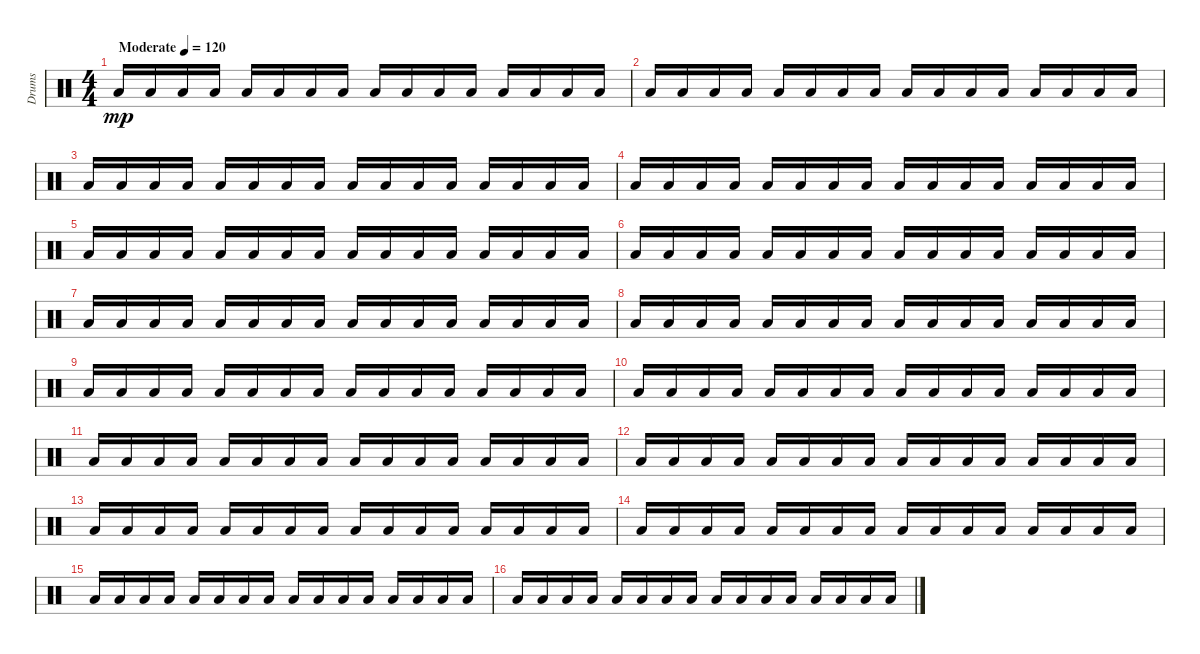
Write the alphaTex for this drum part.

\track ("Drums" "Drums") {instrument percussion}
\staff {score}
\articulation defaults
\ts (4 4)
\tempo (120 "Moderate")
\clef neutral
\ks c "Low Floor Tom (hit)".16{dy mp volume 0} "Low Floor Tom (hit)".16{volume 9} "Low Floor Tom (hit)".16 "Low Floor Tom (hit)".16 "Low Floor Tom (hit)".16 "Low Floor Tom (hit)".16 "Low Floor Tom (hit)".16 "Low Floor Tom (hit)".16 "Low Floor Tom (hit)".16 "Low Floor Tom (hit)".16 "Low Floor Tom (hit)".16 "Low Floor Tom (hit)".16 "Low Floor Tom (hit)".16 "Low Floor Tom (hit)".16 "Low Floor Tom (hit)".16 "Low Floor Tom (hit)".16
|
"Low Floor Tom (hit)".16 "Low Floor Tom (hit)".16 "Low Floor Tom (hit)".16 "Low Floor Tom (hit)".16 "Low Floor Tom (hit)".16 "Low Floor Tom (hit)".16 "Low Floor Tom (hit)".16 "Low Floor Tom (hit)".16 "Low Floor Tom (hit)".16 "Low Floor Tom (hit)".16 "Low Floor Tom (hit)".16 "Low Floor Tom (hit)".16 "Low Floor Tom (hit)".16 "Low Floor Tom (hit)".16 "Low Floor Tom (hit)".16 "Low Floor Tom (hit)".16 |
"Low Floor Tom (hit)".16 "Low Floor Tom (hit)".16 "Low Floor Tom (hit)".16 "Low Floor Tom (hit)".16 "Low Floor Tom (hit)".16 "Low Floor Tom (hit)".16 "Low Floor Tom (hit)".16 "Low Floor Tom (hit)".16 "Low Floor Tom (hit)".16 "Low Floor Tom (hit)".16 "Low Floor Tom (hit)".16 "Low Floor Tom (hit)".16 "Low Floor Tom (hit)".16 "Low Floor Tom (hit)".16 "Low Floor Tom (hit)".16 "Low Floor Tom (hit)".16 |
"Low Floor Tom (hit)".16 "Low Floor Tom (hit)".16 "Low Floor Tom (hit)".16 "Low Floor Tom (hit)".16 "Low Floor Tom (hit)".16 "Low Floor Tom (hit)".16 "Low Floor Tom (hit)".16 "Low Floor Tom (hit)".16 "Low Floor Tom (hit)".16 "Low Floor Tom (hit)".16 "Low Floor Tom (hit)".16 "Low Floor Tom (hit)".16 "Low Floor Tom (hit)".16 "Low Floor Tom (hit)".16 "Low Floor Tom (hit)".16 "Low Floor Tom (hit)".16 |
"Low Floor Tom (hit)".16 "Low Floor Tom (hit)".16 "Low Floor Tom (hit)".16 "Low Floor Tom (hit)".16 "Low Floor Tom (hit)".16 "Low Floor Tom (hit)".16 "Low Floor Tom (hit)".16 "Low Floor Tom (hit)".16 "Low Floor Tom (hit)".16 "Low Floor Tom (hit)".16 "Low Floor Tom (hit)".16 "Low Floor Tom (hit)".16 "Low Floor Tom (hit)".16 "Low Floor Tom (hit)".16 "Low Floor Tom (hit)".16 "Low Floor Tom (hit)".16 |
"Low Floor Tom (hit)".16 "Low Floor Tom (hit)".16 "Low Floor Tom (hit)".16 "Low Floor Tom (hit)".16 "Low Floor Tom (hit)".16 "Low Floor Tom (hit)".16 "Low Floor Tom (hit)".16 "Low Floor Tom (hit)".16 "Low Floor Tom (hit)".16 "Low Floor Tom (hit)".16 "Low Floor Tom (hit)".16 "Low Floor Tom (hit)".16 "Low Floor Tom (hit)".16 "Low Floor Tom (hit)".16 "Low Floor Tom (hit)".16 "Low Floor Tom (hit)".16 |
"Low Floor Tom (hit)".16 "Low Floor Tom (hit)".16 "Low Floor Tom (hit)".16 "Low Floor Tom (hit)".16 "Low Floor Tom (hit)".16 "Low Floor Tom (hit)".16 "Low Floor Tom (hit)".16 "Low Floor Tom (hit)".16 "Low Floor Tom (hit)".16 "Low Floor Tom (hit)".16 "Low Floor Tom (hit)".16 "Low Floor Tom (hit)".16 "Low Floor Tom (hit)".16 "Low Floor Tom (hit)".16 "Low Floor Tom (hit)".16 "Low Floor Tom (hit)".16 |
"Low Floor Tom (hit)".16 "Low Floor Tom (hit)".16 "Low Floor Tom (hit)".16 "Low Floor Tom (hit)".16 "Low Floor Tom (hit)".16 "Low Floor Tom (hit)".16 "Low Floor Tom (hit)".16 "Low Floor Tom (hit)".16 "Low Floor Tom (hit)".16 "Low Floor Tom (hit)".16 "Low Floor Tom (hit)".16 "Low Floor Tom (hit)".16 "Low Floor Tom (hit)".16 "Low Floor Tom (hit)".16 "Low Floor Tom (hit)".16 "Low Floor Tom (hit)".16 |
"Low Floor Tom (hit)".16 "Low Floor Tom (hit)".16 "Low Floor Tom (hit)".16 "Low Floor Tom (hit)".16 "Low Floor Tom (hit)".16 "Low Floor Tom (hit)".16 "Low Floor Tom (hit)".16 "Low Floor Tom (hit)".16 "Low Floor Tom (hit)".16 "Low Floor Tom (hit)".16 "Low Floor Tom (hit)".16 "Low Floor Tom (hit)".16 "Low Floor Tom (hit)".16 "Low Floor Tom (hit)".16 "Low Floor Tom (hit)".16 "Low Floor Tom (hit)".16 |
"Low Floor Tom (hit)".16 "Low Floor Tom (hit)".16 "Low Floor Tom (hit)".16 "Low Floor Tom (hit)".16 "Low Floor Tom (hit)".16 "Low Floor Tom (hit)".16 "Low Floor Tom (hit)".16 "Low Floor Tom (hit)".16 "Low Floor Tom (hit)".16 "Low Floor Tom (hit)".16 "Low Floor Tom (hit)".16 "Low Floor Tom (hit)".16 "Low Floor Tom (hit)".16 "Low Floor Tom (hit)".16 "Low Floor Tom (hit)".16 "Low Floor Tom (hit)".16 |
"Low Floor Tom (hit)".16 "Low Floor Tom (hit)".16 "Low Floor Tom (hit)".16 "Low Floor Tom (hit)".16 "Low Floor Tom (hit)".16 "Low Floor Tom (hit)".16 "Low Floor Tom (hit)".16 "Low Floor Tom (hit)".16 "Low Floor Tom (hit)".16 "Low Floor Tom (hit)".16 "Low Floor Tom (hit)".16 "Low Floor Tom (hit)".16 "Low Floor Tom (hit)".16 "Low Floor Tom (hit)".16 "Low Floor Tom (hit)".16 "Low Floor Tom (hit)".16 |
"Low Floor Tom (hit)".16 "Low Floor Tom (hit)".16 "Low Floor Tom (hit)".16 "Low Floor Tom (hit)".16 "Low Floor Tom (hit)".16 "Low Floor Tom (hit)".16 "Low Floor Tom (hit)".16 "Low Floor Tom (hit)".16 "Low Floor Tom (hit)".16 "Low Floor Tom (hit)".16 "Low Floor Tom (hit)".16 "Low Floor Tom (hit)".16 "Low Floor Tom (hit)".16 "Low Floor Tom (hit)".16 "Low Floor Tom (hit)".16 "Low Floor Tom (hit)".16 |
"Low Floor Tom (hit)".16 "Low Floor Tom (hit)".16 "Low Floor Tom (hit)".16 "Low Floor Tom (hit)".16 "Low Floor Tom (hit)".16 "Low Floor Tom (hit)".16 "Low Floor Tom (hit)".16 "Low Floor Tom (hit)".16 "Low Floor Tom (hit)".16 "Low Floor Tom (hit)".16 "Low Floor Tom (hit)".16 "Low Floor Tom (hit)".16 "Low Floor Tom (hit)".16 "Low Floor Tom (hit)".16 "Low Floor Tom (hit)".16 "Low Floor Tom (hit)".16 |
"Low Floor Tom (hit)".16 "Low Floor Tom (hit)".16 "Low Floor Tom (hit)".16 "Low Floor Tom (hit)".16 "Low Floor Tom (hit)".16 "Low Floor Tom (hit)".16 "Low Floor Tom (hit)".16 "Low Floor Tom (hit)".16 "Low Floor Tom (hit)".16 "Low Floor Tom (hit)".16 "Low Floor Tom (hit)".16 "Low Floor Tom (hit)".16 "Low Floor Tom (hit)".16 "Low Floor Tom (hit)".16 "Low Floor Tom (hit)".16 "Low Floor Tom (hit)".16 |
"Low Floor Tom (hit)".16 "Low Floor Tom (hit)".16 "Low Floor Tom (hit)".16 "Low Floor Tom (hit)".16 "Low Floor Tom (hit)".16 "Low Floor Tom (hit)".16 "Low Floor Tom (hit)".16 "Low Floor Tom (hit)".16 "Low Floor Tom (hit)".16 "Low Floor Tom (hit)".16 "Low Floor Tom (hit)".16 "Low Floor Tom (hit)".16 "Low Floor Tom (hit)".16 "Low Floor Tom (hit)".16 "Low Floor Tom (hit)".16 "Low Floor Tom (hit)".16 |
"Low Floor Tom (hit)".16 "Low Floor Tom (hit)".16 "Low Floor Tom (hit)".16 "Low Floor Tom (hit)".16 "Low Floor Tom (hit)".16 "Low Floor Tom (hit)".16 "Low Floor Tom (hit)".16 "Low Floor Tom (hit)".16 "Low Floor Tom (hit)".16 "Low Floor Tom (hit)".16 "Low Floor Tom (hit)".16 "Low Floor Tom (hit)".16 "Low Floor Tom (hit)".16 "Low Floor Tom (hit)".16 "Low Floor Tom (hit)".16 "Low Floor Tom (hit)".16
